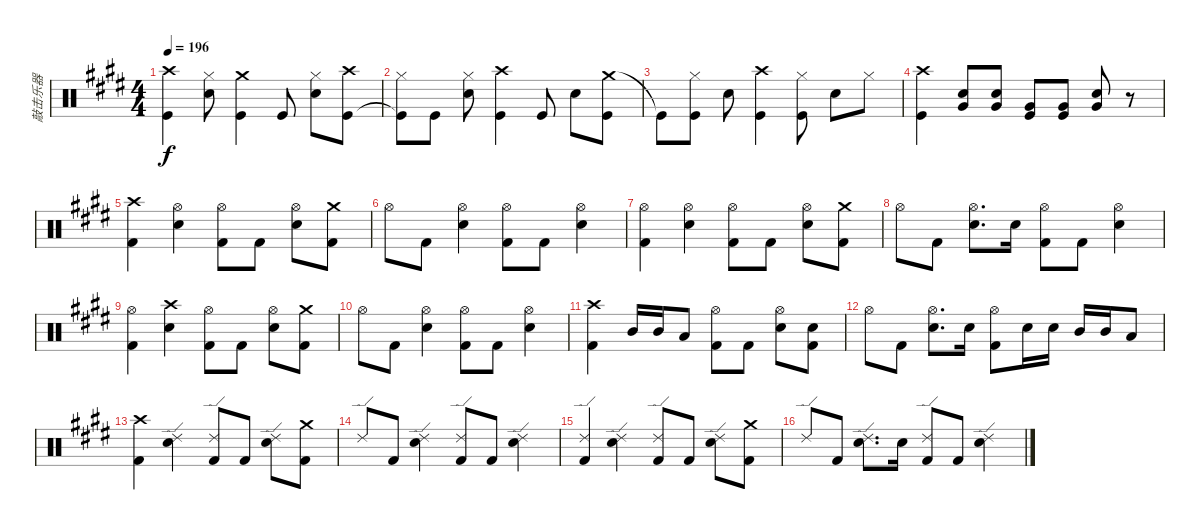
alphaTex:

\track ("敲击乐器" "敲击乐器") {instrument percussion}
\staff {score}
\articulation defaults
\ts (4 4)
\tempo 196
\clef neutral
\ks e
("Crash high (hit)" "Kick (hit)").4{dy f} ("Hi-Hat (closed)" "Snare (hit) 2").8 ("Crash medium (hit)" "Kick (hit)").4 "Kick (hit)".8 ("Hi-Hat (closed)" "Snare (hit) 2").8 ("Crash high (hit)" "Kick (hit)").8 |
\ks c#minor
("Hi-Hat (closed)" "Kick (hit)"{t}).8 "Kick (hit)".8 ("Hi-Hat (closed)" "Snare (hit) 2").8 ("Crash high (hit)" "Kick (hit)").4 "Kick (hit)".8 "Snare (hit) 2".8 ("Crash medium (hit)" "Kick (hit)").8 |
"Kick (hit)"{t}.8 ("Hi-Hat (closed)" "Kick (hit)").8 "Snare (hit) 2".8 ("Crash high (hit)" "Kick (hit)").4 ("Hi-Hat (closed)" "Kick (hit)").8 "Snare (hit) 2".8 "Hi-Hat (closed)".8 |
("Crash high (hit)" "Kick (hit)").4 ("Snare (hit) 2" "Very Low Tom (hit)").8 ("Snare (hit) 2" "Very Low Tom (hit)").8 ("Very Low Tom (hit)" "Kick (hit)").8 ("Very Low Tom (hit)" "Kick (hit)").8 ("Snare (hit) 2" "Very Low Tom (hit)").8 r.8 |
\ks e
("Crash high (hit)" "Kick (hit) 2").4 ("Hi-Hat (open)" "Snare (hit) 2").4 ("Hi-Hat (open)" "Kick (hit) 2").8 "Kick (hit) 2".8 ("Hi-Hat (open)" "Snare (hit) 2").8 ("Crash medium (hit)" "Kick (hit) 2").8 |
\ks c#minor "Hi-Hat (open)".8 "Kick (hit) 2".8
("Hi-Hat (open)" "Snare (hit) 2").4 ("Hi-Hat (open)" "Kick (hit) 2").8 "Kick (hit) 2".8 ("Hi-Hat (open)" "Snare (hit) 2").4 |
\ks e
("Hi-Hat (open)" "Kick (hit) 2").4 ("Hi-Hat (open)" "Snare (hit) 2").4 ("Hi-Hat (open)" "Kick (hit) 2").8 "Kick (hit) 2".8 ("Hi-Hat (open)" "Snare (hit) 2").8 ("Crash medium (hit)" "Kick (hit) 2").8 |
\ks c#minor "Hi-Hat (open)".8 "Kick (hit) 2".8
("Hi-Hat (open)" "Snare (hit) 2").8{d} "Snare (hit) 2".16 ("Hi-Hat (open)" "Kick (hit) 2").8 "Kick (hit) 2".8 ("Hi-Hat (open)" "Snare (hit) 2").4 |
\ks e
("Hi-Hat (open)" "Kick (hit) 2").4 ("Crash high (hit)" "Snare (hit) 2").4 ("Hi-Hat (open)" "Kick (hit) 2").8 "Kick (hit) 2".8 ("Hi-Hat (open)" "Snare (hit) 2").8 ("Crash medium (hit)" "Kick (hit) 2").8 |
\ks c#minor "Hi-Hat (open)".8 "Kick (hit) 2".8
("Hi-Hat (open)" "Snare (hit) 2").4 ("Hi-Hat (open)" "Kick (hit) 2").8 "Kick (hit) 2".8 ("Hi-Hat (open)" "Snare (hit) 2").4 |
\ks e
("Crash high (hit)" "Kick (hit) 2").4 "Mid Tom (hit)".16 "Mid Tom (hit)".16 "Low Tom (hit)".8 ("Hi-Hat (open)" "Kick (hit) 2").8 "Kick (hit) 2".8 ("Hi-Hat (open)" "Snare (hit) 2").8 ("Snare (hit) 2" "Kick (hit) 2").8 |
\ks c#minor "Hi-Hat (open)".8 "Kick (hit) 2".8
("Hi-Hat (open)" "Snare (hit) 2").8{d} "Snare (hit) 2".16 ("Hi-Hat (open)" "Kick (hit) 2").8 "Snare (hit) 2".16 "Snare (hit) 2".16 "Mid Tom (hit)".16 "Mid Tom (hit)".16 "Low Tom (hit)".8 |
\ks e
("Crash high (hit)" "Kick (hit) 2").4 ("Ride (edge) 2" "Snare (hit) 2").4 ("Ride (edge) 2" "Kick (hit) 2").8 "Kick (hit) 2".8 ("Ride (edge) 2" "Snare (hit) 2").8 ("Crash medium (hit)" "Kick (hit) 2").8 |
\ks c#minor "Ride (edge) 2".8 "Kick (hit) 2".8
("Ride (edge) 2" "Snare (hit) 2").4 ("Ride (edge) 2" "Kick (hit) 2").8 "Kick (hit) 2".8 ("Ride (edge) 2" "Snare (hit) 2").4 |
\ks e
("Ride (edge) 2" "Kick (hit) 2").4 ("Ride (edge) 2" "Snare (hit) 2").4 ("Ride (edge) 2" "Kick (hit) 2").8 "Kick (hit) 2".8 ("Ride (edge) 2" "Snare (hit) 2").8 ("Crash medium (hit)" "Kick (hit) 2").8 |
\ks c#minor "Ride (edge) 2".8 "Kick (hit) 2".8
("Ride (edge) 2" "Snare (hit) 2").8{d} "Snare (hit) 2".16 ("Ride (edge) 2" "Kick (hit) 2").8 "Kick (hit) 2".8 ("Ride (edge) 2" "Snare (hit) 2").4
